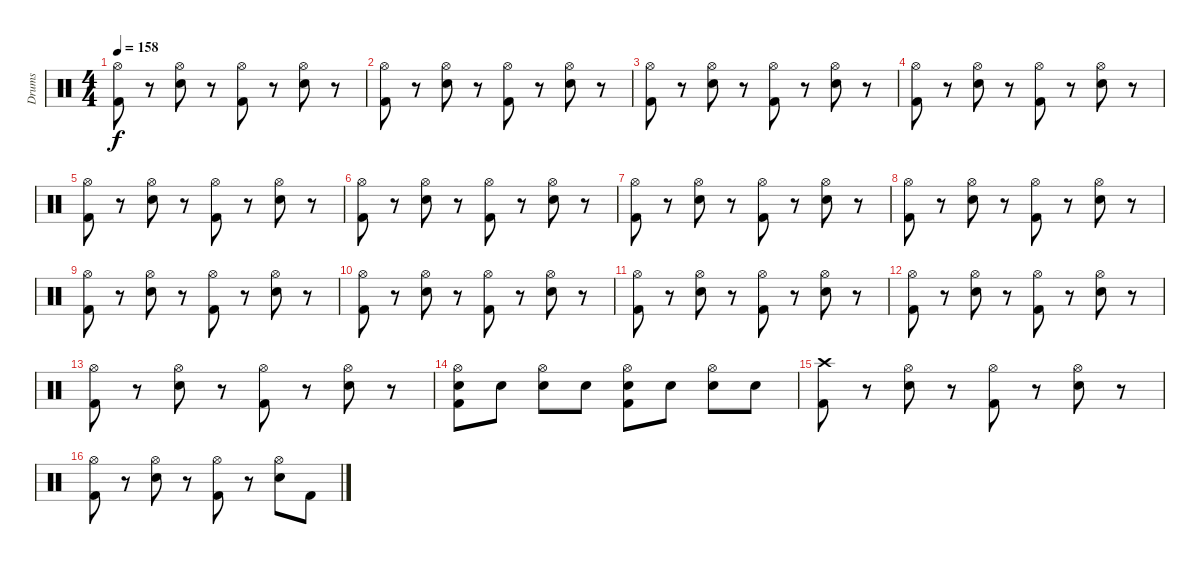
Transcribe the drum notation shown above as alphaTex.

\track ("Drums" "Drums") {instrument percussion}
\staff {score}
\articulation defaults
\ts (4 4)
\tempo 158
\clef neutral
\ks c
("Hi-Hat (open)" "Kick (hit) 2").8{dy f} r.8 ("Hi-Hat (open)" "Snare (hit) 2").8 r.8 ("Hi-Hat (open)" "Kick (hit) 2").8 r.8 ("Hi-Hat (open)" "Snare (hit) 2").8 r.8 |
("Hi-Hat (open)" "Kick (hit) 2").8 r.8 ("Hi-Hat (open)" "Snare (hit) 2").8 r.8 ("Hi-Hat (open)" "Kick (hit) 2").8 r.8 ("Hi-Hat (open)" "Snare (hit) 2").8 r.8 |
("Hi-Hat (open)" "Kick (hit) 2").8 r.8 ("Hi-Hat (open)" "Snare (hit) 2").8 r.8 ("Hi-Hat (open)" "Kick (hit) 2").8 r.8 ("Hi-Hat (open)" "Snare (hit) 2").8 r.8 |
("Hi-Hat (open)" "Kick (hit) 2").8 r.8 ("Hi-Hat (open)" "Snare (hit) 2").8 r.8 ("Hi-Hat (open)" "Kick (hit) 2").8 r.8 ("Hi-Hat (open)" "Snare (hit) 2").8 r.8 |
("Hi-Hat (open)" "Kick (hit) 2").8 r.8 ("Hi-Hat (open)" "Snare (hit) 2").8 r.8 ("Hi-Hat (open)" "Kick (hit) 2").8 r.8 ("Hi-Hat (open)" "Snare (hit) 2").8 r.8 |
("Hi-Hat (open)" "Kick (hit) 2").8 r.8 ("Hi-Hat (open)" "Snare (hit) 2").8 r.8 ("Hi-Hat (open)" "Kick (hit) 2").8 r.8 ("Hi-Hat (open)" "Snare (hit) 2").8 r.8 |
("Hi-Hat (open)" "Kick (hit) 2").8 r.8 ("Hi-Hat (open)" "Snare (hit) 2").8 r.8 ("Hi-Hat (open)" "Kick (hit) 2").8 r.8 ("Hi-Hat (open)" "Snare (hit) 2").8 r.8 |
("Hi-Hat (open)" "Kick (hit) 2").8 r.8 ("Hi-Hat (open)" "Snare (hit) 2").8 r.8 ("Hi-Hat (open)" "Kick (hit) 2").8 r.8 ("Hi-Hat (open)" "Snare (hit) 2").8 r.8 |
("Hi-Hat (open)" "Kick (hit) 2").8 r.8 ("Hi-Hat (open)" "Snare (hit) 2").8 r.8 ("Hi-Hat (open)" "Kick (hit) 2").8 r.8 ("Hi-Hat (open)" "Snare (hit) 2").8 r.8 |
("Hi-Hat (open)" "Kick (hit) 2").8 r.8 ("Hi-Hat (open)" "Snare (hit) 2").8 r.8 ("Hi-Hat (open)" "Kick (hit) 2").8 r.8 ("Hi-Hat (open)" "Snare (hit) 2").8 r.8 |
("Hi-Hat (open)" "Kick (hit) 2").8 r.8 ("Hi-Hat (open)" "Snare (hit) 2").8 r.8 ("Hi-Hat (open)" "Kick (hit) 2").8 r.8 ("Hi-Hat (open)" "Snare (hit) 2").8 r.8 |
("Hi-Hat (open)" "Kick (hit) 2").8 r.8 ("Hi-Hat (open)" "Snare (hit) 2").8 r.8 ("Hi-Hat (open)" "Kick (hit) 2").8 r.8 ("Hi-Hat (open)" "Snare (hit) 2").8 r.8 |
("Hi-Hat (open)" "Kick (hit) 2").8 r.8 ("Hi-Hat (open)" "Snare (hit) 2").8 r.8 ("Hi-Hat (open)" "Kick (hit) 2").8 r.8 ("Hi-Hat (open)" "Snare (hit) 2").8 r.8 |
("Hi-Hat (open)" "Snare (hit) 2" "Kick (hit) 2").8 "Snare (hit) 2".8 ("Hi-Hat (open)" "Snare (hit) 2").8 "Snare (hit) 2".8 ("Hi-Hat (open)" "Snare (hit) 2" "Kick (hit) 2").8 "Snare (hit) 2".8 ("Hi-Hat (open)" "Snare (hit) 2").8 "Snare (hit) 2".8 |
("Crash high (hit)" "Kick (hit) 2").8 r.8 ("Hi-Hat (open)" "Snare (hit) 2").8 r.8 ("Hi-Hat (open)" "Kick (hit) 2").8 r.8 ("Hi-Hat (open)" "Snare (hit) 2").8 r.8 |
("Hi-Hat (open)" "Kick (hit) 2").8 r.8 ("Hi-Hat (open)" "Snare (hit) 2").8 r.8 ("Hi-Hat (open)" "Kick (hit) 2").8 r.8 ("Hi-Hat (open)" "Snare (hit) 2").8 "Kick (hit) 2".8
